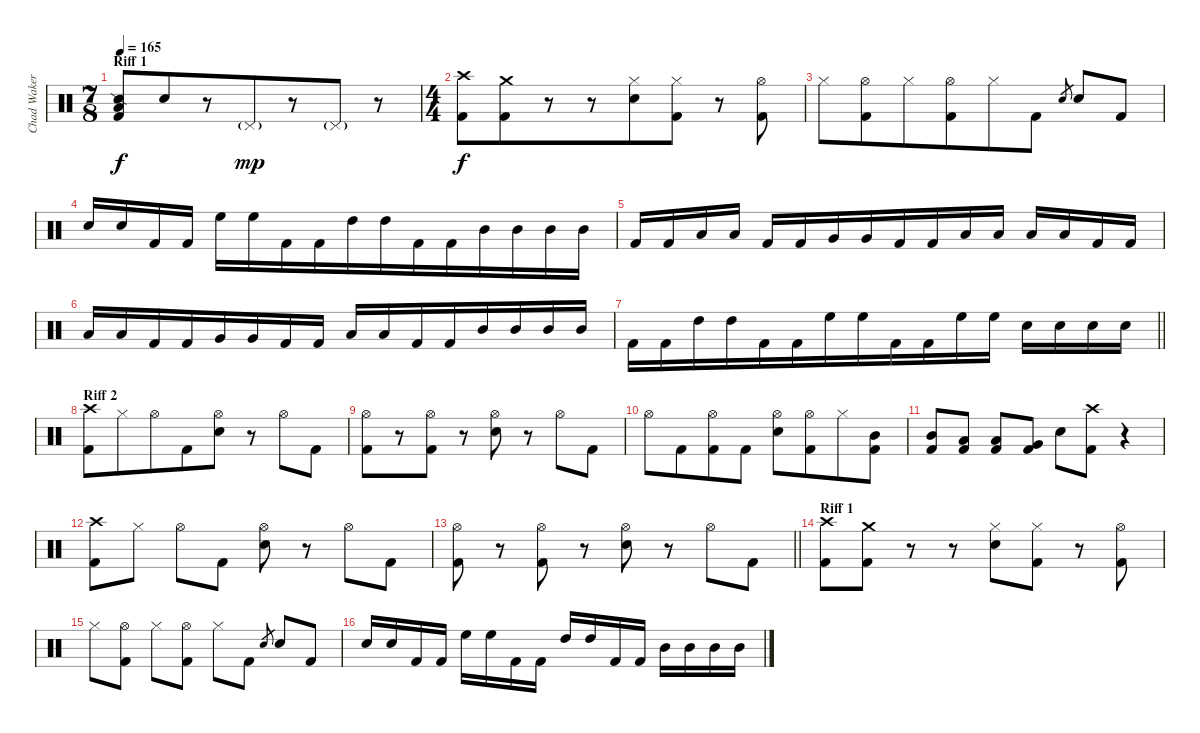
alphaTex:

\track ("Chad Wakerman - Percussion" "Chad Waker") {instrument percussion}
\staff {score}
\articulation defaults
\ts (7 8)
\section ("" "Riff 1")
\tempo 165
\clef neutral
\ks c
("Snare (side stick) 2" "Low Floor Tom (hit)" "Kick (hit) 2").8{dy f} "Electric Snare (hit)".8 r.8{beam merge} "Pedal Hi-Hat (hit)"{g}.8{dy mp beam merge} r.8{beam merge} "Pedal Hi-Hat (hit)"{g}.8{beam merge} r.8 |
\ts (4 4)
("Crash high (hit)" "Kick (hit) 2").8{dy f beam merge} ("Crash medium (hit)" "Kick (hit) 2").8{beam merge} r.8 r.8{beam merge} ("Hi-Hat (closed)" "Electric Snare (hit)").8{beam merge} ("Hi-Hat (closed)" "Kick (hit) 2").8 r.8{beam merge} ("Hi-Hat (open)" "Kick (hit) 2").8 |
"Hi-Hat (closed)".8{beam merge} ("Hi-Hat (open)" "Kick (hit) 2").8{beam merge} "Hi-Hat (closed)".8 ("Hi-Hat (open)" "Kick (hit) 2").8{beam merge} "Hi-Hat (closed)".8{beam merge} "Kick (hit) 2".8 "Electric Snare (hit)".8{gr beam merge} "Electric Snare (hit)".8 "Kick (hit) 2".8 |
"Electric Snare (hit)".16{beam merge} "Electric Snare (hit)".16 "Kick (hit) 2".16{beam merge} "Kick (hit) 2".16 "High Floor Tom (hit)".16{beam merge} "High Floor Tom (hit)".16{beam merge} "Kick (hit) 2".16 "Kick (hit) 2".16{beam merge} "High Tom (hit)".16 "High Tom (hit)".16 "Kick (hit) 2".16{beam merge} "Kick (hit) 2".16{beam merge} "Mid Tom (hit)".16 "Mid Tom (hit)".16{beam merge} "Mid Tom (hit)".16 "Mid Tom (hit)".16 |
"Kick (hit) 2".16 "Kick (hit) 2".16{beam merge} "Low Tom (hit)".16{beam merge} "Low Tom (hit)".16 "Kick (hit) 2".16 "Kick (hit) 2".16{beam merge} "Very Low Tom (hit)".16 "Very Low Tom (hit)".16{beam merge} "Kick (hit) 2".16 "Kick (hit) 2".16{beam merge} "Low Floor Tom (hit)".16 "Low Floor Tom (hit)".16 "Low Floor Tom (hit)".16{beam merge} "Low Floor Tom (hit)".16 "Kick (hit) 2".16{beam merge} "Kick (hit) 2".16 |
"Low Floor Tom (hit)".16{beam merge} "Low Floor Tom (hit)".16 "Kick (hit) 2".16{beam merge} "Kick (hit) 2".16{beam merge} "Very Low Tom (hit)".16 "Very Low Tom (hit)".16{beam merge} "Kick (hit) 2".16 "Kick (hit) 2".16 "Low Tom (hit)".16{beam merge} "Low Tom (hit)".16 "Kick (hit) 2".16{beam merge} "Kick (hit) 2".16{beam merge} "Mid Tom (hit)".16 "Mid Tom (hit)".16 "Mid Tom (hit)".16 "Mid Tom (hit)".16 |
\barLineRight lightlight "Kick (hit) 2".16 "Kick (hit) 2".16 "High Tom (hit)".16{beam merge} "High Tom (hit)".16{beam merge} "Kick (hit) 2".16{beam merge} "Kick (hit) 2".16{beam merge} "High Floor Tom (hit)".16{beam merge} "High Floor Tom (hit)".16{beam merge} "Kick (hit) 2".16 "Kick (hit) 2".16{beam merge} "High Floor Tom (hit)".16{beam merge} "High Floor Tom (hit)".16 "Electric Snare (hit)".16 "Electric Snare (hit)".16{beam merge} "Electric Snare (hit)".16 "Electric Snare (hit)".16
|
\section ("" "Riff 2")
("Crash high (hit)" "Kick (hit) 2").8{beam merge} "Hi-Hat (closed)".8{beam merge} "Hi-Hat (open)".8 "Kick (hit) 2".8{beam merge} ("Hi-Hat (open)" "Electric Snare (hit)").8 r.8{beam merge} "Hi-Hat (open)".8 "Kick (hit) 2".8 |
("Hi-Hat (open)" "Kick (hit) 2").8{beam merge} r.8 ("Hi-Hat (open)" "Kick (hit) 2").8 r.8{beam merge} ("Hi-Hat (open)" "Electric Snare (hit)").8 r.8{beam merge} "Hi-Hat (open)".8{beam merge} "Kick (hit) 2".8 |
"Hi-Hat (open)".8{beam merge} "Kick (hit) 2".8{beam merge} ("Hi-Hat (open)" "Kick (hit) 2").8 "Kick (hit) 2".8 ("Hi-Hat (open)" "Electric Snare (hit)").8 ("Hi-Hat (open)" "Kick (hit) 2").8{beam merge} "Hi-Hat (closed)".8 ("Mid Tom (hit)" "Kick (hit) 2").8 |
("Mid Tom (hit)" "Kick (hit) 2").8 ("Low Tom (hit)" "Kick (hit) 2").8 ("Low Tom (hit)" "Kick (hit) 2").8 ("Very Low Tom (hit)" "Kick (hit) 2").8 "Electric Snare (hit)".8 ("Crash high (hit)" "Kick (hit) 2").8 r.4 |
("Crash high (hit)" "Kick (hit) 2").8 "Hi-Hat (closed)".8 "Hi-Hat (open)".8 "Kick (hit) 2".8 ("Hi-Hat (open)" "Electric Snare (hit)").8 r.8 "Hi-Hat (open)".8 "Kick (hit) 2".8 |
\barLineRight lightlight
("Hi-Hat (open)" "Kick (hit) 2").8 r.8 ("Hi-Hat (open)" "Kick (hit) 2").8 r.8 ("Hi-Hat (open)" "Electric Snare (hit)").8 r.8 "Hi-Hat (open)".8 "Kick (hit) 2".8 |
\section ("" "Riff 1")
("Crash high (hit)" "Kick (hit) 2").8 ("Crash medium (hit)" "Kick (hit) 2").8 r.8 r.8 ("Hi-Hat (closed)" "Electric Snare (hit)").8 ("Hi-Hat (closed)" "Kick (hit) 2").8 r.8 ("Hi-Hat (open)" "Kick (hit) 2").8 |
"Hi-Hat (closed)".8 ("Hi-Hat (open)" "Kick (hit) 2").8 "Hi-Hat (closed)".8 ("Hi-Hat (open)" "Kick (hit) 2").8 "Hi-Hat (closed)".8 "Kick (hit) 2".8 "Electric Snare (hit)".8{gr} "Electric Snare (hit)".8 "Kick (hit) 2".8 |
"Electric Snare (hit)".16 "Electric Snare (hit)".16 "Kick (hit) 2".16 "Kick (hit) 2".16 "High Floor Tom (hit)".16 "High Floor Tom (hit)".16 "Kick (hit) 2".16 "Kick (hit) 2".16 "High Tom (hit)".16 "High Tom (hit)".16 "Kick (hit) 2".16 "Kick (hit) 2".16 "Mid Tom (hit)".16 "Mid Tom (hit)".16 "Mid Tom (hit)".16 "Mid Tom (hit)".16
